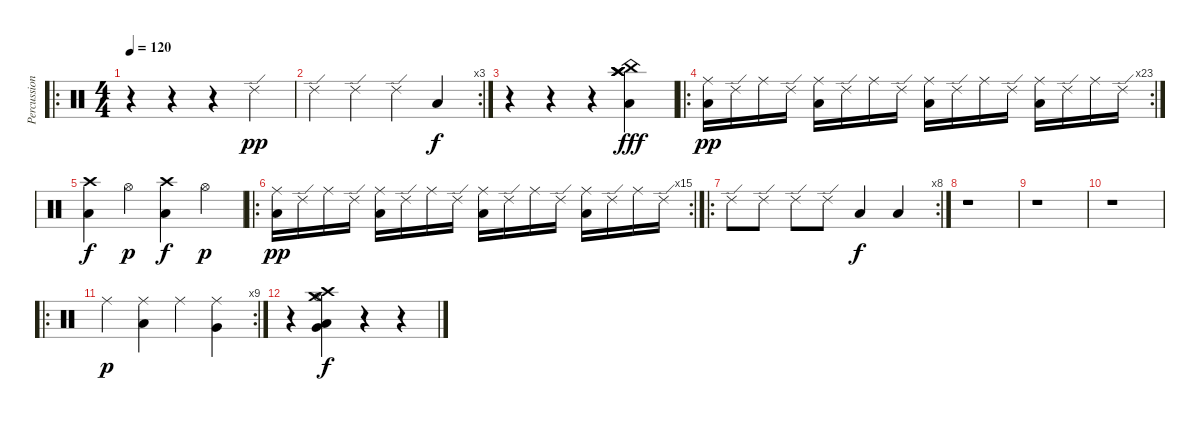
\track ("Percussion" "Percussion") {instrument percussion}
\staff {score}
\articulation defaults
\ro
\ts (4 4)
\tempo 120
\clef neutral
\ks c
r.4{dy pp} r.4 r.4 "Ride (edge) 2".4 |
\rc 3 "Ride (edge) 2".4 "Ride (edge) 2".4 "Ride (edge) 2".4 "Low Floor Tom (hit)".4{dy f}
|
r.4 r.4 r.4 ("Crash high (hit)" "Crash high (hit)" "Crash high (hit)" "Low Floor Tom (hit)" "China (hit)").4{dy fff} |
\ro
\rc 23
("Low Floor Tom (hit)" "Ride (middle)").16{dy pp} "Ride (edge) 2".16 "Ride (middle)".16 "Ride (edge) 2".16 ("Low Floor Tom (hit)" "Ride (middle)").16 "Ride (edge) 2".16 "Ride (middle)".16 "Ride (edge) 2".16 ("Low Floor Tom (hit)" "Ride (middle)").16 "Ride (edge) 2".16 "Ride (middle)".16 "Ride (edge) 2".16 ("Low Floor Tom (hit)" "Ride (middle)").16 "Ride (edge) 2".16 "Ride (middle)".16 "Ride (edge) 2".16 |
("Low Floor Tom (hit)" "Crash high (hit)").4{dy f} "Hi-Hat (open)".4{dy p} ("Low Floor Tom (hit)" "Crash high (hit)").4{dy f} "Hi-Hat (open)".4{dy p} |
\ro
\rc 15
("Low Floor Tom (hit)" "Ride (middle)").16{dy pp} "Ride (edge) 2".16 "Ride (middle)".16 "Ride (edge) 2".16 ("Low Floor Tom (hit)" "Ride (middle)").16 "Ride (edge) 2".16 "Ride (middle)".16 "Ride (edge) 2".16 ("Low Floor Tom (hit)" "Ride (middle)").16 "Ride (edge) 2".16 "Ride (middle)".16 "Ride (edge) 2".16 ("Low Floor Tom (hit)" "Ride (middle)").16 "Ride (edge) 2".16 "Ride (middle)".16 "Ride (edge) 2".16 |
\ro
\rc 8 "Ride (edge) 2".8 "Ride (edge) 2".8 "Ride (edge) 2".8 "Ride (edge) 2".8 "Low Floor Tom (hit)".4{dy f} "Low Floor Tom (hit)".4
|
r.1 |
r.1 |
r.1 |
\ro
\rc 9 "Ride (middle)".4{dy p}
("Low Floor Tom (hit)" "Ride (middle)").4 "Ride (middle)".4 ("Very Low Tom (hit)" "Ride (middle)").4 |
r.4 ("Crash high (hit)" "Hi-Hat (open)" "Crash medium (hit)" "Low Floor Tom (hit)" "Very Low Tom (hit)").4{dy f} r.4 r.4
